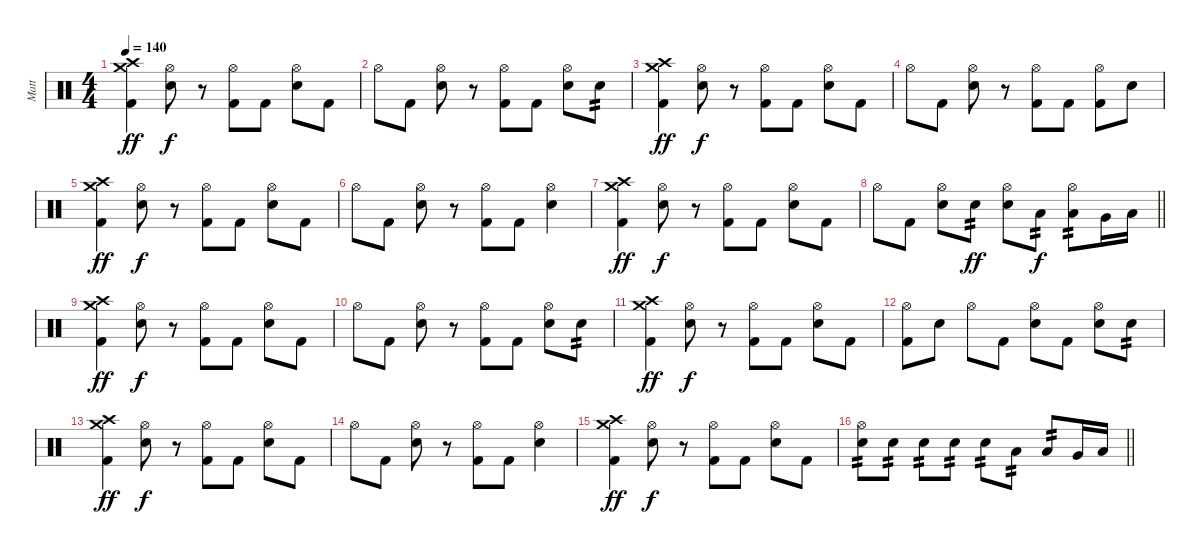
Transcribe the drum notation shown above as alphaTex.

\track ("Matt" "Matt") {instrument percussion}
\staff {score}
\articulation defaults
\ts (4 4)
\tempo 140
\clef neutral
\ks c
("Crash high (hit)" "Crash medium (hit)" "Kick (hit) 2").4{dy ff} ("Hi-Hat (open)" "Snare (hit) 2").8{dy f} r.8 ("Hi-Hat (open)" "Kick (hit) 2").8 "Kick (hit) 2".8 ("Hi-Hat (open)" "Snare (hit) 2").8 "Kick (hit) 2".8 |
"Hi-Hat (open)".8 "Kick (hit) 2".8 ("Hi-Hat (open)" "Snare (hit) 2").8 r.8 ("Hi-Hat (open)" "Kick (hit) 2").8 "Kick (hit) 2".8 ("Hi-Hat (open)" "Snare (hit) 2").8 "Snare (hit) 2".8{tp 2} |
("Crash high (hit)" "Crash medium (hit)" "Kick (hit) 2").4{dy ff} ("Hi-Hat (open)" "Snare (hit) 2").8{dy f} r.8 ("Hi-Hat (open)" "Kick (hit) 2").8 "Kick (hit) 2".8 ("Hi-Hat (open)" "Snare (hit) 2").8 "Kick (hit) 2".8 |
"Hi-Hat (open)".8 "Kick (hit) 2".8 ("Hi-Hat (open)" "Snare (hit) 2").8 r.8 ("Hi-Hat (open)" "Kick (hit) 2").8 "Kick (hit) 2".8 ("Hi-Hat (open)" "Kick (hit) 2").8 "Snare (hit) 2".8 |
("Crash high (hit)" "Crash medium (hit)" "Kick (hit) 2").4{dy ff} ("Hi-Hat (open)" "Snare (hit) 2").8{dy f} r.8 ("Hi-Hat (open)" "Kick (hit) 2").8 "Kick (hit) 2".8 ("Hi-Hat (open)" "Snare (hit) 2").8 "Kick (hit) 2".8 |
"Hi-Hat (open)".8 "Kick (hit) 2".8 ("Hi-Hat (open)" "Snare (hit) 2").8 r.8 ("Hi-Hat (open)" "Kick (hit) 2").8 "Kick (hit) 2".8 ("Hi-Hat (open)" "Snare (hit) 2").4 |
("Crash high (hit)" "Crash medium (hit)" "Kick (hit) 2").4{dy ff} ("Hi-Hat (open)" "Snare (hit) 2").8{dy f} r.8 ("Hi-Hat (open)" "Kick (hit) 2").8 "Kick (hit) 2".8 ("Hi-Hat (open)" "Snare (hit) 2").8 "Kick (hit) 2".8 |
\barLineRight lightlight "Hi-Hat (open)".8 "Kick (hit) 2".8
("Hi-Hat (open)" "Snare (hit) 2").8 "Snare (hit) 2".8{tp 2 dy ff} ("Hi-Hat (open)" "Snare (hit) 2").8 "Low Tom (hit)".8{tp 2 dy f} ("Hi-Hat (open)" "Low Tom (hit)").8{tp 2} "Very Low Tom (hit)".16 "Low Floor Tom (hit)".16 |
("Crash high (hit)" "Crash medium (hit)" "Kick (hit) 2").4{dy ff} ("Hi-Hat (open)" "Snare (hit) 2").8{dy f} r.8 ("Hi-Hat (open)" "Kick (hit) 2").8 "Kick (hit) 2".8 ("Hi-Hat (open)" "Snare (hit) 2").8 "Kick (hit) 2".8 |
"Hi-Hat (open)".8 "Kick (hit) 2".8 ("Hi-Hat (open)" "Snare (hit) 2").8 r.8 ("Hi-Hat (open)" "Kick (hit) 2").8 "Kick (hit) 2".8 ("Hi-Hat (open)" "Snare (hit) 2").8 "Snare (hit) 2".8{tp 2} |
("Crash high (hit)" "Crash medium (hit)" "Kick (hit) 2").4{dy ff} ("Hi-Hat (open)" "Snare (hit) 2").8{dy f} r.8 ("Hi-Hat (open)" "Kick (hit) 2").8 "Kick (hit) 2".8 ("Hi-Hat (open)" "Snare (hit) 2").8 "Kick (hit) 2".8 |
("Hi-Hat (open)" "Kick (hit) 2").8 "Snare (hit) 2".8 "Hi-Hat (open)".8 "Kick (hit) 2".8 ("Hi-Hat (open)" "Snare (hit) 2").8 "Kick (hit) 2".8 ("Hi-Hat (open)" "Snare (hit) 2").8 "Snare (hit) 2".8{tp 2} |
("Crash high (hit)" "Crash medium (hit)" "Kick (hit) 2").4{dy ff} ("Hi-Hat (open)" "Snare (hit) 2").8{dy f} r.8 ("Hi-Hat (open)" "Kick (hit) 2").8 "Kick (hit) 2".8 ("Hi-Hat (open)" "Snare (hit) 2").8 "Kick (hit) 2".8 |
"Hi-Hat (open)".8 "Kick (hit) 2".8 ("Hi-Hat (open)" "Snare (hit) 2").8 r.8 ("Hi-Hat (open)" "Kick (hit) 2").8 "Kick (hit) 2".8 ("Hi-Hat (open)" "Snare (hit) 2").4 |
("Crash high (hit)" "Crash medium (hit)" "Kick (hit) 2").4{dy ff} ("Hi-Hat (open)" "Snare (hit) 2").8{dy f} r.8 ("Hi-Hat (open)" "Kick (hit) 2").8 "Kick (hit) 2".8 ("Hi-Hat (open)" "Snare (hit) 2").8 "Kick (hit) 2".8 |
\barLineRight lightlight
("Hi-Hat (open)" "Snare (hit) 2").8{tp 2} "Snare (hit) 2".8{tp 2} "Snare (hit) 2".8{tp 2} "Snare (hit) 2".8{tp 2} "Snare (hit) 2".8{tp 2} "Low Tom (hit)".8{tp 2} "Low Tom (hit)".8{tp 2} "Very Low Tom (hit)".16 "Low Floor Tom (hit)".16
